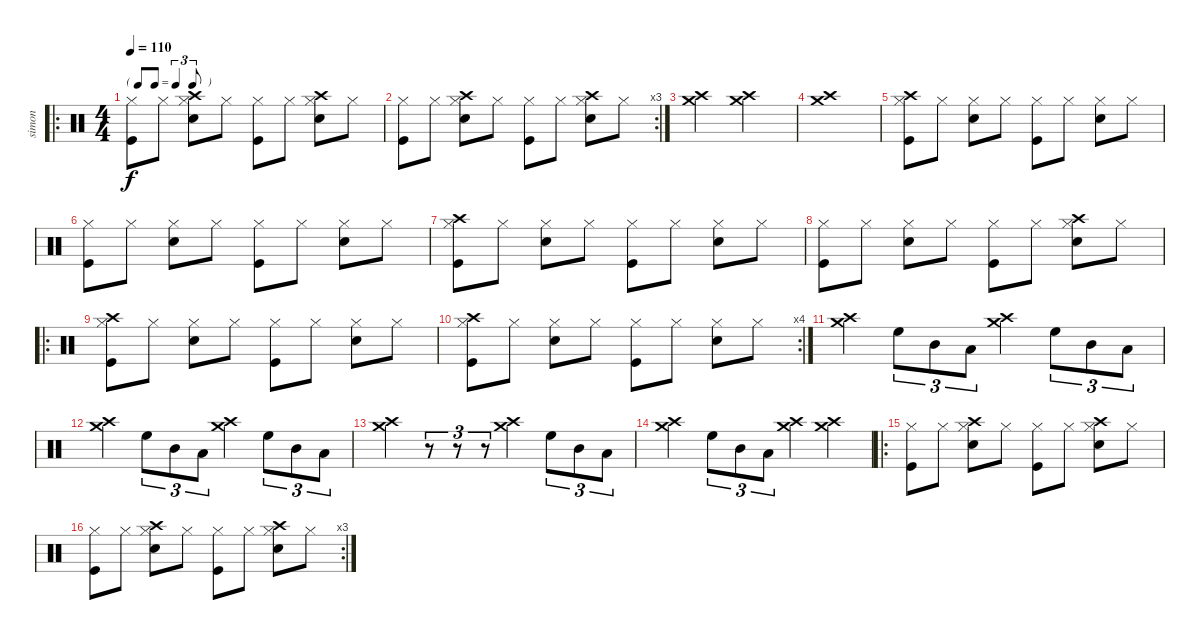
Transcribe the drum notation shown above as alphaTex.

\track ("simon" "simon") {instrument percussion}
\staff {score}
\articulation defaults
\ro
\ts (4 4)
\tf triplet8th
\tempo 110
\clef neutral
\ks c
("Hi-Hat (closed)" "Kick (hit)").8{dy f} "Hi-Hat (closed)".8 ("Hi-Hat (closed)" "Snare (hit) 2" "Crash high (hit)").8 "Hi-Hat (closed)".8 ("Hi-Hat (closed)" "Kick (hit)").8 "Hi-Hat (closed)".8 ("Hi-Hat (closed)" "Snare (hit) 2" "Crash high (hit)").8 "Hi-Hat (closed)".8 |
\rc 3
("Hi-Hat (closed)" "Kick (hit)").8 "Hi-Hat (closed)".8 ("Hi-Hat (closed)" "Snare (hit) 2" "Crash high (hit)").8 "Hi-Hat (closed)".8 ("Hi-Hat (closed)" "Kick (hit)").8 "Hi-Hat (closed)".8 ("Hi-Hat (closed)" "Snare (hit) 2" "Crash high (hit)").8 "Hi-Hat (closed)".8 |
("Crash medium (hit)" "Crash high (hit)").2 ("Crash medium (hit)" "Crash high (hit)").2 |
("Crash high (hit)" "Crash medium (hit)").1 |
("Hi-Hat (closed)" "Kick (hit)" "Crash high (hit)").8 "Hi-Hat (closed)".8 ("Hi-Hat (closed)" "Snare (hit) 2").8 "Hi-Hat (closed)".8 ("Hi-Hat (closed)" "Kick (hit)").8 "Hi-Hat (closed)".8 ("Hi-Hat (closed)" "Snare (hit) 2").8 "Hi-Hat (closed)".8 |
("Hi-Hat (closed)" "Kick (hit)").8 "Hi-Hat (closed)".8 ("Hi-Hat (closed)" "Snare (hit) 2").8 "Hi-Hat (closed)".8 ("Hi-Hat (closed)" "Kick (hit)").8 "Hi-Hat (closed)".8 ("Hi-Hat (closed)" "Snare (hit) 2").8 "Hi-Hat (closed)".8 |
("Hi-Hat (closed)" "Kick (hit)" "Crash high (hit)").8 "Hi-Hat (closed)".8 ("Hi-Hat (closed)" "Snare (hit) 2").8 "Hi-Hat (closed)".8 ("Hi-Hat (closed)" "Kick (hit)").8 "Hi-Hat (closed)".8 ("Hi-Hat (closed)" "Snare (hit) 2").8 "Hi-Hat (closed)".8 |
("Hi-Hat (closed)" "Kick (hit)").8 "Hi-Hat (closed)".8 ("Hi-Hat (closed)" "Snare (hit) 2").8 "Hi-Hat (closed)".8 ("Hi-Hat (closed)" "Kick (hit)").8 "Hi-Hat (closed)".8 ("Hi-Hat (closed)" "Snare (hit) 2" "Crash high (hit)").8 "Hi-Hat (closed)".8 |
\ro
("Hi-Hat (closed)" "Kick (hit)" "Crash high (hit)").8 "Hi-Hat (closed)".8 ("Hi-Hat (closed)" "Snare (hit) 2").8 "Hi-Hat (closed)".8 ("Hi-Hat (closed)" "Kick (hit)").8 "Hi-Hat (closed)".8 ("Hi-Hat (closed)" "Snare (hit) 2").8 "Hi-Hat (closed)".8 |
\rc 4
("Hi-Hat (closed)" "Kick (hit)" "Crash high (hit)").8 "Hi-Hat (closed)".8 ("Hi-Hat (closed)" "Snare (hit) 2").8 "Hi-Hat (closed)".8 ("Hi-Hat (closed)" "Kick (hit)").8 "Hi-Hat (closed)".8 ("Hi-Hat (closed)" "Snare (hit) 2").8 "Hi-Hat (closed)".8 |
("Crash high (hit)" "Crash medium (hit)").4 "High Floor Tom (hit)".8{tu (3 2)} "Mid Tom (hit)".8{tu (3 2)} "Low Tom (hit)".8{tu (3 2)} ("Crash high (hit)" "Crash medium (hit)").4 "High Floor Tom (hit)".8{tu (3 2)} "Mid Tom (hit)".8{tu (3 2)} "Low Tom (hit)".8{tu (3 2)} |
("Crash high (hit)" "Crash medium (hit)").4 "High Floor Tom (hit)".8{tu (3 2)} "Mid Tom (hit)".8{tu (3 2)} "Low Tom (hit)".8{tu (3 2)} ("Crash high (hit)" "Crash medium (hit)").4 "High Floor Tom (hit)".8{tu (3 2)} "Mid Tom (hit)".8{tu (3 2)} "Low Tom (hit)".8{tu (3 2)} |
("Crash high (hit)" "Crash medium (hit)").4 r.8{tu (3 2)} r.8{tu (3 2)} r.8{tu (3 2)} ("Crash high (hit)" "Crash medium (hit)").4 "High Floor Tom (hit)".8{tu (3 2)} "Mid Tom (hit)".8{tu (3 2)} "Low Tom (hit)".8{tu (3 2)} |
("Crash high (hit)" "Crash medium (hit)").4 "High Floor Tom (hit)".8{tu (3 2)} "Mid Tom (hit)".8{tu (3 2)} "Low Tom (hit)".8{tu (3 2)} ("Crash high (hit)" "Crash medium (hit)").4 ("Crash high (hit)" "Crash medium (hit)").4 |
\ro
("Hi-Hat (closed)" "Kick (hit)").8 "Hi-Hat (closed)".8 ("Hi-Hat (closed)" "Snare (hit) 2" "Crash high (hit)").8 "Hi-Hat (closed)".8 ("Hi-Hat (closed)" "Kick (hit)").8 "Hi-Hat (closed)".8 ("Hi-Hat (closed)" "Snare (hit) 2" "Crash high (hit)").8 "Hi-Hat (closed)".8 |
\rc 3
("Hi-Hat (closed)" "Kick (hit)").8 "Hi-Hat (closed)".8 ("Hi-Hat (closed)" "Snare (hit) 2" "Crash high (hit)").8 "Hi-Hat (closed)".8 ("Hi-Hat (closed)" "Kick (hit)").8 "Hi-Hat (closed)".8 ("Hi-Hat (closed)" "Snare (hit) 2" "Crash high (hit)").8 "Hi-Hat (closed)".8
